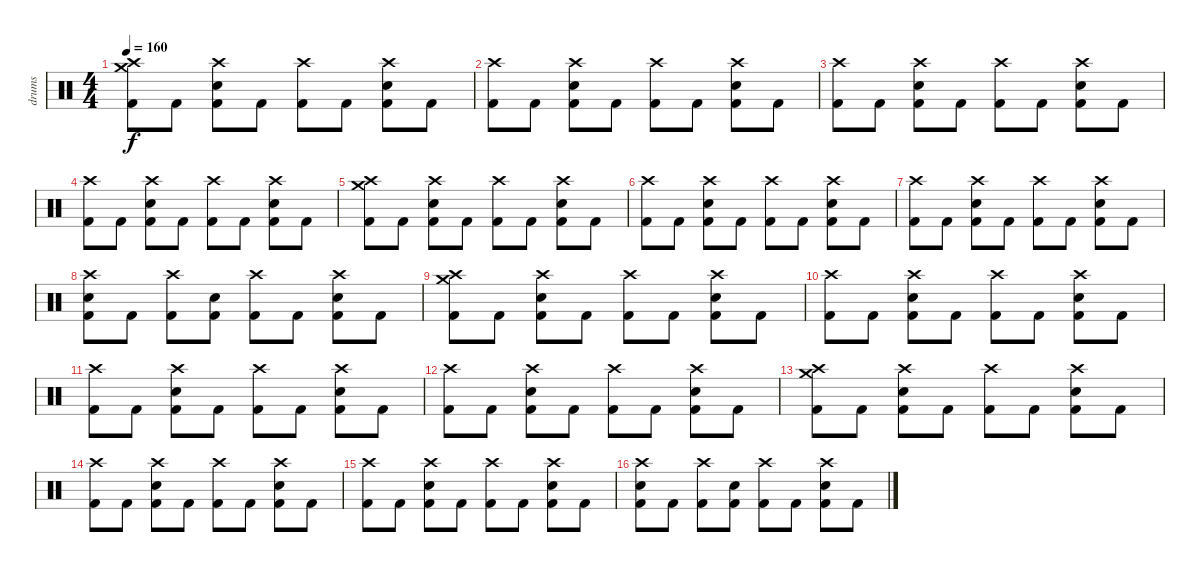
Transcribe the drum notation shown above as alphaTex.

\track ("drums" "drums") {instrument percussion}
\staff {score}
\articulation defaults
\ts (4 4)
\tempo 160
\clef neutral
\ks c
("Crash high (hit)" "Crash medium (hit)" "Kick (hit) 2").8{dy f} "Kick (hit) 2".8 ("Crash high (hit)" "Electric Snare (hit)" "Kick (hit) 2").8 "Kick (hit) 2".8 ("Crash high (hit)" "Kick (hit) 2").8 "Kick (hit) 2".8 ("Crash high (hit)" "Electric Snare (hit)" "Kick (hit) 2").8 "Kick (hit) 2".8 |
("Crash high (hit)" "Kick (hit) 2").8 "Kick (hit) 2".8 ("Crash high (hit)" "Electric Snare (hit)" "Kick (hit) 2").8 "Kick (hit) 2".8 ("Crash high (hit)" "Kick (hit) 2").8 "Kick (hit) 2".8 ("Crash high (hit)" "Electric Snare (hit)" "Kick (hit) 2").8 "Kick (hit) 2".8 |
("Crash high (hit)" "Kick (hit) 2").8 "Kick (hit) 2".8 ("Crash high (hit)" "Electric Snare (hit)" "Kick (hit) 2").8 "Kick (hit) 2".8 ("Crash high (hit)" "Kick (hit) 2").8 "Kick (hit) 2".8 ("Crash high (hit)" "Electric Snare (hit)" "Kick (hit) 2").8 "Kick (hit) 2".8 |
("Crash high (hit)" "Kick (hit) 2").8 "Kick (hit) 2".8 ("Crash high (hit)" "Electric Snare (hit)" "Kick (hit) 2").8 "Kick (hit) 2".8 ("Crash high (hit)" "Kick (hit) 2").8 "Kick (hit) 2".8 ("Crash high (hit)" "Electric Snare (hit)" "Kick (hit) 2").8 "Kick (hit) 2".8 |
("Crash high (hit)" "Crash medium (hit)" "Kick (hit) 2").8 "Kick (hit) 2".8 ("Crash high (hit)" "Electric Snare (hit)" "Kick (hit) 2").8 "Kick (hit) 2".8 ("Crash high (hit)" "Kick (hit) 2").8 "Kick (hit) 2".8 ("Crash high (hit)" "Electric Snare (hit)" "Kick (hit) 2").8 "Kick (hit) 2".8 |
("Crash high (hit)" "Kick (hit) 2").8 "Kick (hit) 2".8 ("Crash high (hit)" "Electric Snare (hit)" "Kick (hit) 2").8 "Kick (hit) 2".8 ("Crash high (hit)" "Kick (hit) 2").8 "Kick (hit) 2".8 ("Crash high (hit)" "Electric Snare (hit)" "Kick (hit) 2").8 "Kick (hit) 2".8 |
("Crash high (hit)" "Kick (hit) 2").8 "Kick (hit) 2".8 ("Crash high (hit)" "Electric Snare (hit)" "Kick (hit) 2").8 "Kick (hit) 2".8 ("Crash high (hit)" "Kick (hit) 2").8 "Kick (hit) 2".8 ("Crash high (hit)" "Electric Snare (hit)" "Kick (hit) 2").8 "Kick (hit) 2".8 |
("Crash high (hit)" "Electric Snare (hit)" "Kick (hit) 2").8 "Kick (hit) 2".8 ("Crash high (hit)" "Kick (hit) 2").8 ("Electric Snare (hit)" "Kick (hit) 2").8 ("Crash high (hit)" "Kick (hit) 2").8 "Kick (hit) 2".8 ("Crash high (hit)" "Electric Snare (hit)" "Kick (hit) 2").8 "Kick (hit) 2".8 |
("Crash high (hit)" "Crash medium (hit)" "Kick (hit) 2").8 "Kick (hit) 2".8 ("Crash high (hit)" "Electric Snare (hit)" "Kick (hit) 2").8 "Kick (hit) 2".8 ("Crash high (hit)" "Kick (hit) 2").8 "Kick (hit) 2".8 ("Crash high (hit)" "Electric Snare (hit)" "Kick (hit) 2").8 "Kick (hit) 2".8 |
("Crash high (hit)" "Kick (hit) 2").8 "Kick (hit) 2".8 ("Crash high (hit)" "Electric Snare (hit)" "Kick (hit) 2").8 "Kick (hit) 2".8 ("Crash high (hit)" "Kick (hit) 2").8 "Kick (hit) 2".8 ("Crash high (hit)" "Electric Snare (hit)" "Kick (hit) 2").8 "Kick (hit) 2".8 |
("Crash high (hit)" "Kick (hit) 2").8 "Kick (hit) 2".8 ("Crash high (hit)" "Electric Snare (hit)" "Kick (hit) 2").8 "Kick (hit) 2".8 ("Crash high (hit)" "Kick (hit) 2").8 "Kick (hit) 2".8 ("Crash high (hit)" "Electric Snare (hit)" "Kick (hit) 2").8 "Kick (hit) 2".8 |
("Crash high (hit)" "Kick (hit) 2").8 "Kick (hit) 2".8 ("Crash high (hit)" "Electric Snare (hit)" "Kick (hit) 2").8 "Kick (hit) 2".8 ("Crash high (hit)" "Kick (hit) 2").8 "Kick (hit) 2".8 ("Crash high (hit)" "Electric Snare (hit)" "Kick (hit) 2").8 "Kick (hit) 2".8 |
("Crash high (hit)" "Crash medium (hit)" "Kick (hit) 2").8 "Kick (hit) 2".8 ("Crash high (hit)" "Electric Snare (hit)" "Kick (hit) 2").8 "Kick (hit) 2".8 ("Crash high (hit)" "Kick (hit) 2").8 "Kick (hit) 2".8 ("Crash high (hit)" "Electric Snare (hit)" "Kick (hit) 2").8 "Kick (hit) 2".8 |
("Crash high (hit)" "Kick (hit) 2").8 "Kick (hit) 2".8 ("Crash high (hit)" "Electric Snare (hit)" "Kick (hit) 2").8 "Kick (hit) 2".8 ("Crash high (hit)" "Kick (hit) 2").8 "Kick (hit) 2".8 ("Crash high (hit)" "Electric Snare (hit)" "Kick (hit) 2").8 "Kick (hit) 2".8 |
("Crash high (hit)" "Kick (hit) 2").8 "Kick (hit) 2".8 ("Crash high (hit)" "Electric Snare (hit)" "Kick (hit) 2").8 "Kick (hit) 2".8 ("Crash high (hit)" "Kick (hit) 2").8 "Kick (hit) 2".8 ("Crash high (hit)" "Electric Snare (hit)" "Kick (hit) 2").8 "Kick (hit) 2".8 |
("Crash high (hit)" "Electric Snare (hit)" "Kick (hit) 2").8 "Kick (hit) 2".8 ("Crash high (hit)" "Kick (hit) 2").8 ("Electric Snare (hit)" "Kick (hit) 2").8 ("Crash high (hit)" "Kick (hit) 2").8 "Kick (hit) 2".8 ("Crash high (hit)" "Electric Snare (hit)" "Kick (hit) 2").8 "Kick (hit) 2".8
